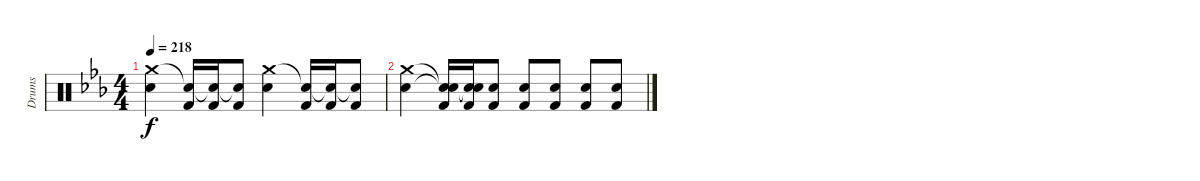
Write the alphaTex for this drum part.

\track ("Drums" "Drums") {instrument percussion}
\staff {score}
\articulation defaults
\ts (4 4)
\tempo 218
\clef neutral
\ks eb
("Crash medium (hit)" "Electric Snare (hit)").4{dy f} ("Snare (hit)"{t} "Kick (hit) 2").16 ("Snare (hit)"{t} "Kick (hit) 2").16 ("Snare (hit)"{t} "Kick (hit) 2").8 ("Crash medium (hit)" "Electric Snare (hit)").4 ("Snare (hit)"{t} "Kick (hit) 2").16 ("Snare (hit)"{t} "Kick (hit) 2").16 ("Snare (hit)"{t} "Kick (hit) 2").8 |
("Crash medium (hit)" "Electric Snare (hit)").4 ("Snare (hit)"{t} "Snare (hit)"{t} "Kick (hit) 2").16 ("Snare (hit)"{t} "Snare (hit)"{t} "Kick (hit) 2").16 ("Electric Snare (hit)" "Kick (hit) 2").8 ("Electric Snare (hit)" "Kick (hit) 2").8 ("Electric Snare (hit)" "Kick (hit) 2").8 ("Electric Snare (hit)" "Kick (hit) 2").8 ("Electric Snare (hit)" "Kick (hit) 2").8
